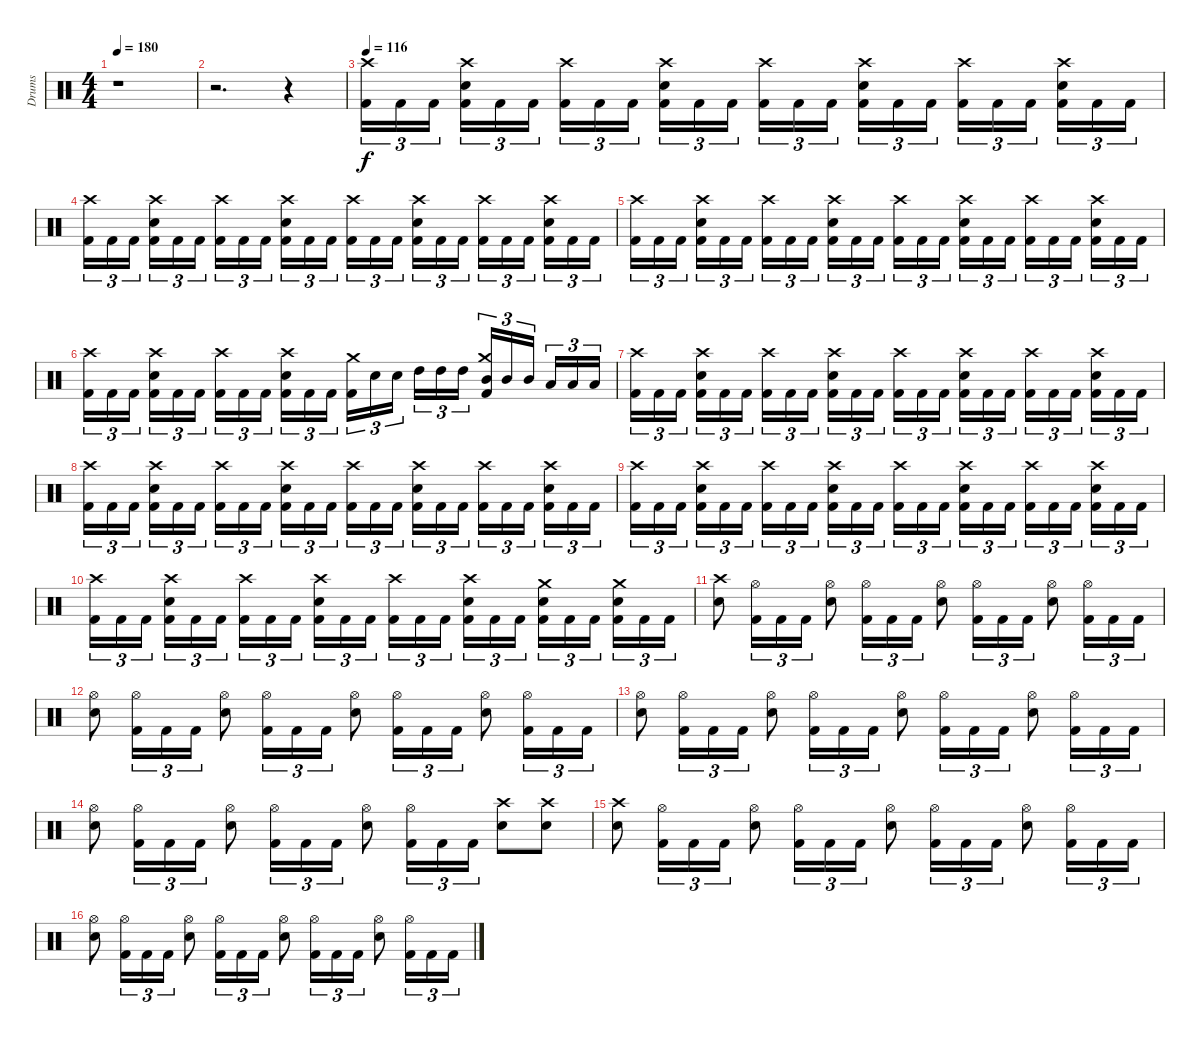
\track ("Drums" "Drums") {instrument percussion}
\staff {score}
\articulation defaults
\ts (4 4)
\tempo 180
\clef neutral
\ks c
r.1{dy f} |
r.2{d} r.4 |
\tempo 116
("Crash high (hit)" "Kick (hit) 2").16{tu (3 2)} "Kick (hit) 2".16{tu (3 2)} "Kick (hit) 2".16{tu (3 2)} ("Crash high (hit)" "Electric Snare (hit)" "Kick (hit) 2").16{tu (3 2)} "Kick (hit) 2".16{tu (3 2)} "Kick (hit) 2".16{tu (3 2)} ("Crash high (hit)" "Kick (hit) 2").16{tu (3 2)} "Kick (hit) 2".16{tu (3 2)} "Kick (hit) 2".16{tu (3 2)} ("Crash high (hit)" "Electric Snare (hit)" "Kick (hit) 2").16{tu (3 2)} "Kick (hit) 2".16{tu (3 2)} "Kick (hit) 2".16{tu (3 2)} ("Crash high (hit)" "Kick (hit) 2").16{tu (3 2)} "Kick (hit) 2".16{tu (3 2)} "Kick (hit) 2".16{tu (3 2)} ("Crash high (hit)" "Electric Snare (hit)" "Kick (hit) 2").16{tu (3 2)} "Kick (hit) 2".16{tu (3 2)} "Kick (hit) 2".16{tu (3 2)} ("Crash high (hit)" "Kick (hit) 2").16{tu (3 2)} "Kick (hit) 2".16{tu (3 2)} "Kick (hit) 2".16{tu (3 2)} ("Crash high (hit)" "Electric Snare (hit)" "Kick (hit) 2").16{tu (3 2)} "Kick (hit) 2".16{tu (3 2)} "Kick (hit) 2".16{tu (3 2)} |
("Crash high (hit)" "Kick (hit) 2").16{tu (3 2)} "Kick (hit) 2".16{tu (3 2)} "Kick (hit) 2".16{tu (3 2)} ("Crash high (hit)" "Electric Snare (hit)" "Kick (hit) 2").16{tu (3 2)} "Kick (hit) 2".16{tu (3 2)} "Kick (hit) 2".16{tu (3 2)} ("Crash high (hit)" "Kick (hit) 2").16{tu (3 2)} "Kick (hit) 2".16{tu (3 2)} "Kick (hit) 2".16{tu (3 2)} ("Crash high (hit)" "Electric Snare (hit)" "Kick (hit) 2").16{tu (3 2)} "Kick (hit) 2".16{tu (3 2)} "Kick (hit) 2".16{tu (3 2)} ("Crash high (hit)" "Kick (hit) 2").16{tu (3 2)} "Kick (hit) 2".16{tu (3 2)} "Kick (hit) 2".16{tu (3 2)} ("Crash high (hit)" "Electric Snare (hit)" "Kick (hit) 2").16{tu (3 2)} "Kick (hit) 2".16{tu (3 2)} "Kick (hit) 2".16{tu (3 2)} ("Crash high (hit)" "Kick (hit) 2").16{tu (3 2)} "Kick (hit) 2".16{tu (3 2)} "Kick (hit) 2".16{tu (3 2)} ("Crash high (hit)" "Electric Snare (hit)" "Kick (hit) 2").16{tu (3 2)} "Kick (hit) 2".16{tu (3 2)} "Kick (hit) 2".16{tu (3 2)} |
("Crash high (hit)" "Kick (hit) 2").16{tu (3 2)} "Kick (hit) 2".16{tu (3 2)} "Kick (hit) 2".16{tu (3 2)} ("Crash high (hit)" "Electric Snare (hit)" "Kick (hit) 2").16{tu (3 2)} "Kick (hit) 2".16{tu (3 2)} "Kick (hit) 2".16{tu (3 2)} ("Crash high (hit)" "Kick (hit) 2").16{tu (3 2)} "Kick (hit) 2".16{tu (3 2)} "Kick (hit) 2".16{tu (3 2)} ("Crash high (hit)" "Electric Snare (hit)" "Kick (hit) 2").16{tu (3 2)} "Kick (hit) 2".16{tu (3 2)} "Kick (hit) 2".16{tu (3 2)} ("Crash high (hit)" "Kick (hit) 2").16{tu (3 2)} "Kick (hit) 2".16{tu (3 2)} "Kick (hit) 2".16{tu (3 2)} ("Crash high (hit)" "Electric Snare (hit)" "Kick (hit) 2").16{tu (3 2)} "Kick (hit) 2".16{tu (3 2)} "Kick (hit) 2".16{tu (3 2)} ("Crash high (hit)" "Kick (hit) 2").16{tu (3 2)} "Kick (hit) 2".16{tu (3 2)} "Kick (hit) 2".16{tu (3 2)} ("Crash high (hit)" "Electric Snare (hit)" "Kick (hit) 2").16{tu (3 2)} "Kick (hit) 2".16{tu (3 2)} "Kick (hit) 2".16{tu (3 2)} |
("Crash high (hit)" "Kick (hit) 2").16{tu (3 2)} "Kick (hit) 2".16{tu (3 2)} "Kick (hit) 2".16{tu (3 2)} ("Crash high (hit)" "Electric Snare (hit)" "Kick (hit) 2").16{tu (3 2)} "Kick (hit) 2".16{tu (3 2)} "Kick (hit) 2".16{tu (3 2)} ("Crash high (hit)" "Kick (hit) 2").16{tu (3 2)} "Kick (hit) 2".16{tu (3 2)} "Kick (hit) 2".16{tu (3 2)} ("Crash high (hit)" "Electric Snare (hit)" "Kick (hit) 2").16{tu (3 2)} "Kick (hit) 2".16{tu (3 2)} "Kick (hit) 2".16{tu (3 2)} ("Crash medium (hit)" "Kick (hit) 2").16{tu (3 2)} "Electric Snare (hit)".16{tu (3 2)} "Electric Snare (hit)".16{tu (3 2)} "High Tom (hit)".16{tu (3 2)} "High Tom (hit)".16{tu (3 2)} "High Tom (hit)".16{tu (3 2)} ("Crash medium (hit)" "Mid Tom (hit)" "Kick (hit) 2").16{tu (3 2)} "Mid Tom (hit)".16{tu (3 2)} "Mid Tom (hit)".16{tu (3 2)} "Low Tom (hit)".16{tu (3 2)} "Low Tom (hit)".16{tu (3 2)} "Low Tom (hit)".16{tu (3 2)} |
("Crash high (hit)" "Kick (hit) 2").16{tu (3 2)} "Kick (hit) 2".16{tu (3 2)} "Kick (hit) 2".16{tu (3 2)} ("Crash high (hit)" "Electric Snare (hit)" "Kick (hit) 2").16{tu (3 2)} "Kick (hit) 2".16{tu (3 2)} "Kick (hit) 2".16{tu (3 2)} ("Crash high (hit)" "Kick (hit) 2").16{tu (3 2)} "Kick (hit) 2".16{tu (3 2)} "Kick (hit) 2".16{tu (3 2)} ("Crash high (hit)" "Electric Snare (hit)" "Kick (hit) 2").16{tu (3 2)} "Kick (hit) 2".16{tu (3 2)} "Kick (hit) 2".16{tu (3 2)} ("Crash high (hit)" "Kick (hit) 2").16{tu (3 2)} "Kick (hit) 2".16{tu (3 2)} "Kick (hit) 2".16{tu (3 2)} ("Crash high (hit)" "Electric Snare (hit)" "Kick (hit) 2").16{tu (3 2)} "Kick (hit) 2".16{tu (3 2)} "Kick (hit) 2".16{tu (3 2)} ("Crash high (hit)" "Kick (hit) 2").16{tu (3 2)} "Kick (hit) 2".16{tu (3 2)} "Kick (hit) 2".16{tu (3 2)} ("Crash high (hit)" "Electric Snare (hit)" "Kick (hit) 2").16{tu (3 2)} "Kick (hit) 2".16{tu (3 2)} "Kick (hit) 2".16{tu (3 2)} |
("Crash high (hit)" "Kick (hit) 2").16{tu (3 2)} "Kick (hit) 2".16{tu (3 2)} "Kick (hit) 2".16{tu (3 2)} ("Crash high (hit)" "Electric Snare (hit)" "Kick (hit) 2").16{tu (3 2)} "Kick (hit) 2".16{tu (3 2)} "Kick (hit) 2".16{tu (3 2)} ("Crash high (hit)" "Kick (hit) 2").16{tu (3 2)} "Kick (hit) 2".16{tu (3 2)} "Kick (hit) 2".16{tu (3 2)} ("Crash high (hit)" "Electric Snare (hit)" "Kick (hit) 2").16{tu (3 2)} "Kick (hit) 2".16{tu (3 2)} "Kick (hit) 2".16{tu (3 2)} ("Crash high (hit)" "Kick (hit) 2").16{tu (3 2)} "Kick (hit) 2".16{tu (3 2)} "Kick (hit) 2".16{tu (3 2)} ("Crash high (hit)" "Electric Snare (hit)" "Kick (hit) 2").16{tu (3 2)} "Kick (hit) 2".16{tu (3 2)} "Kick (hit) 2".16{tu (3 2)} ("Crash high (hit)" "Kick (hit) 2").16{tu (3 2)} "Kick (hit) 2".16{tu (3 2)} "Kick (hit) 2".16{tu (3 2)} ("Crash high (hit)" "Electric Snare (hit)" "Kick (hit) 2").16{tu (3 2)} "Kick (hit) 2".16{tu (3 2)} "Kick (hit) 2".16{tu (3 2)} |
("Crash high (hit)" "Kick (hit) 2").16{tu (3 2)} "Kick (hit) 2".16{tu (3 2)} "Kick (hit) 2".16{tu (3 2)} ("Crash high (hit)" "Electric Snare (hit)" "Kick (hit) 2").16{tu (3 2)} "Kick (hit) 2".16{tu (3 2)} "Kick (hit) 2".16{tu (3 2)} ("Crash high (hit)" "Kick (hit) 2").16{tu (3 2)} "Kick (hit) 2".16{tu (3 2)} "Kick (hit) 2".16{tu (3 2)} ("Crash high (hit)" "Electric Snare (hit)" "Kick (hit) 2").16{tu (3 2)} "Kick (hit) 2".16{tu (3 2)} "Kick (hit) 2".16{tu (3 2)} ("Crash high (hit)" "Kick (hit) 2").16{tu (3 2)} "Kick (hit) 2".16{tu (3 2)} "Kick (hit) 2".16{tu (3 2)} ("Crash high (hit)" "Electric Snare (hit)" "Kick (hit) 2").16{tu (3 2)} "Kick (hit) 2".16{tu (3 2)} "Kick (hit) 2".16{tu (3 2)} ("Crash high (hit)" "Kick (hit) 2").16{tu (3 2)} "Kick (hit) 2".16{tu (3 2)} "Kick (hit) 2".16{tu (3 2)} ("Crash high (hit)" "Electric Snare (hit)" "Kick (hit) 2").16{tu (3 2)} "Kick (hit) 2".16{tu (3 2)} "Kick (hit) 2".16{tu (3 2)} |
("Crash high (hit)" "Kick (hit) 2").16{tu (3 2)} "Kick (hit) 2".16{tu (3 2)} "Kick (hit) 2".16{tu (3 2)} ("Crash high (hit)" "Electric Snare (hit)" "Kick (hit) 2").16{tu (3 2)} "Kick (hit) 2".16{tu (3 2)} "Kick (hit) 2".16{tu (3 2)} ("Crash high (hit)" "Kick (hit) 2").16{tu (3 2)} "Kick (hit) 2".16{tu (3 2)} "Kick (hit) 2".16{tu (3 2)} ("Crash high (hit)" "Electric Snare (hit)" "Kick (hit) 2").16{tu (3 2)} "Kick (hit) 2".16{tu (3 2)} "Kick (hit) 2".16{tu (3 2)} ("Crash high (hit)" "Kick (hit) 2").16{tu (3 2)} "Kick (hit) 2".16{tu (3 2)} "Kick (hit) 2".16{tu (3 2)} ("Crash high (hit)" "Electric Snare (hit)" "Kick (hit) 2").16{tu (3 2)} "Kick (hit) 2".16{tu (3 2)} "Kick (hit) 2".16{tu (3 2)} ("Crash medium (hit)" "Electric Snare (hit)" "Kick (hit) 2").16{tu (3 2)} "Kick (hit) 2".16{tu (3 2)} "Kick (hit) 2".16{tu (3 2)} ("Crash medium (hit)" "Electric Snare (hit)" "Kick (hit) 2").16{tu (3 2)} "Kick (hit) 2".16{tu (3 2)} "Kick (hit) 2".16{tu (3 2)} |
("Crash high (hit)" "Electric Snare (hit)").8 ("Hi-Hat (open)" "Kick (hit) 2").16{tu (3 2)} "Kick (hit) 2".16{tu (3 2)} "Kick (hit) 2".16{tu (3 2)} ("Hi-Hat (open)" "Electric Snare (hit)").8 ("Hi-Hat (open)" "Kick (hit) 2").16{tu (3 2)} "Kick (hit) 2".16{tu (3 2)} "Kick (hit) 2".16{tu (3 2)} ("Hi-Hat (open)" "Electric Snare (hit)").8 ("Hi-Hat (open)" "Kick (hit) 2").16{tu (3 2)} "Kick (hit) 2".16{tu (3 2)} "Kick (hit) 2".16{tu (3 2)} ("Hi-Hat (open)" "Electric Snare (hit)").8 ("Hi-Hat (open)" "Kick (hit) 2").16{tu (3 2)} "Kick (hit) 2".16{tu (3 2)} "Kick (hit) 2".16{tu (3 2)} |
("Hi-Hat (open)" "Electric Snare (hit)").8 ("Hi-Hat (open)" "Kick (hit) 2").16{tu (3 2)} "Kick (hit) 2".16{tu (3 2)} "Kick (hit) 2".16{tu (3 2)} ("Hi-Hat (open)" "Electric Snare (hit)").8 ("Hi-Hat (open)" "Kick (hit) 2").16{tu (3 2)} "Kick (hit) 2".16{tu (3 2)} "Kick (hit) 2".16{tu (3 2)} ("Hi-Hat (open)" "Electric Snare (hit)").8 ("Hi-Hat (open)" "Kick (hit) 2").16{tu (3 2)} "Kick (hit) 2".16{tu (3 2)} "Kick (hit) 2".16{tu (3 2)} ("Hi-Hat (open)" "Electric Snare (hit)").8 ("Hi-Hat (open)" "Kick (hit) 2").16{tu (3 2)} "Kick (hit) 2".16{tu (3 2)} "Kick (hit) 2".16{tu (3 2)} |
("Hi-Hat (open)" "Electric Snare (hit)").8 ("Hi-Hat (open)" "Kick (hit) 2").16{tu (3 2)} "Kick (hit) 2".16{tu (3 2)} "Kick (hit) 2".16{tu (3 2)} ("Hi-Hat (open)" "Electric Snare (hit)").8 ("Hi-Hat (open)" "Kick (hit) 2").16{tu (3 2)} "Kick (hit) 2".16{tu (3 2)} "Kick (hit) 2".16{tu (3 2)} ("Hi-Hat (open)" "Electric Snare (hit)").8 ("Hi-Hat (open)" "Kick (hit) 2").16{tu (3 2)} "Kick (hit) 2".16{tu (3 2)} "Kick (hit) 2".16{tu (3 2)} ("Hi-Hat (open)" "Electric Snare (hit)").8 ("Hi-Hat (open)" "Kick (hit) 2").16{tu (3 2)} "Kick (hit) 2".16{tu (3 2)} "Kick (hit) 2".16{tu (3 2)} |
("Hi-Hat (open)" "Electric Snare (hit)").8 ("Hi-Hat (open)" "Kick (hit) 2").16{tu (3 2)} "Kick (hit) 2".16{tu (3 2)} "Kick (hit) 2".16{tu (3 2)} ("Hi-Hat (open)" "Electric Snare (hit)").8 ("Hi-Hat (open)" "Kick (hit) 2").16{tu (3 2)} "Kick (hit) 2".16{tu (3 2)} "Kick (hit) 2".16{tu (3 2)} ("Hi-Hat (open)" "Electric Snare (hit)").8 ("Hi-Hat (open)" "Kick (hit) 2").16{tu (3 2)} "Kick (hit) 2".16{tu (3 2)} "Kick (hit) 2".16{tu (3 2)} ("Crash high (hit)" "Electric Snare (hit)").8 ("Crash high (hit)" "Electric Snare (hit)").8 |
("Crash high (hit)" "Electric Snare (hit)").8 ("Hi-Hat (open)" "Kick (hit) 2").16{tu (3 2)} "Kick (hit) 2".16{tu (3 2)} "Kick (hit) 2".16{tu (3 2)} ("Hi-Hat (open)" "Electric Snare (hit)").8 ("Hi-Hat (open)" "Kick (hit) 2").16{tu (3 2)} "Kick (hit) 2".16{tu (3 2)} "Kick (hit) 2".16{tu (3 2)} ("Hi-Hat (open)" "Electric Snare (hit)").8 ("Hi-Hat (open)" "Kick (hit) 2").16{tu (3 2)} "Kick (hit) 2".16{tu (3 2)} "Kick (hit) 2".16{tu (3 2)} ("Hi-Hat (open)" "Electric Snare (hit)").8 ("Hi-Hat (open)" "Kick (hit) 2").16{tu (3 2)} "Kick (hit) 2".16{tu (3 2)} "Kick (hit) 2".16{tu (3 2)} |
("Hi-Hat (open)" "Electric Snare (hit)").8 ("Hi-Hat (open)" "Kick (hit) 2").16{tu (3 2)} "Kick (hit) 2".16{tu (3 2)} "Kick (hit) 2".16{tu (3 2)} ("Hi-Hat (open)" "Electric Snare (hit)").8 ("Hi-Hat (open)" "Kick (hit) 2").16{tu (3 2)} "Kick (hit) 2".16{tu (3 2)} "Kick (hit) 2".16{tu (3 2)} ("Hi-Hat (open)" "Electric Snare (hit)").8 ("Hi-Hat (open)" "Kick (hit) 2").16{tu (3 2)} "Kick (hit) 2".16{tu (3 2)} "Kick (hit) 2".16{tu (3 2)} ("Hi-Hat (open)" "Electric Snare (hit)").8 ("Hi-Hat (open)" "Kick (hit) 2").16{tu (3 2)} "Kick (hit) 2".16{tu (3 2)} "Kick (hit) 2".16{tu (3 2)}
